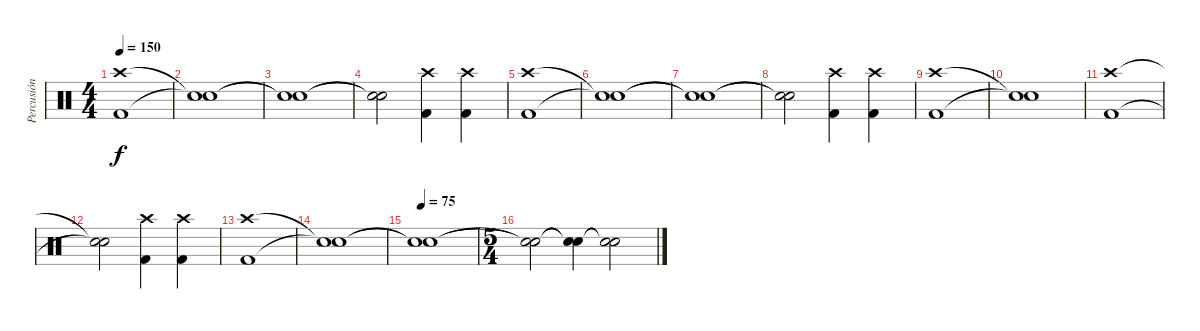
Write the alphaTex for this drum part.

\track ("Percusión" "Percusión") {instrument percussion}
\staff {score}
\articulation defaults
\ts (4 4)
\tempo 150
\clef neutral
\ks c
("Crash high (hit)" "Kick (hit) 2").1{dy f} |
("Snare (hit)"{t} "Snare (hit)"{t}).1 |
("Snare (hit)"{t} "Snare (hit)"{t}).1 |
("Snare (hit)"{t} "Snare (hit)"{t}).2 ("Crash high (hit)" "Kick (hit) 2").4 ("Crash high (hit)" "Kick (hit) 2").4 |
("Crash high (hit)" "Kick (hit) 2").1 |
("Snare (hit)"{t} "Snare (hit)"{t}).1 |
("Snare (hit)"{t} "Snare (hit)"{t}).1 |
("Snare (hit)"{t} "Snare (hit)"{t}).2 ("Crash high (hit)" "Kick (hit) 2").4 ("Crash high (hit)" "Kick (hit) 2").4 |
("Crash high (hit)" "Kick (hit) 2").1 |
("Snare (hit)"{t} "Snare (hit)"{t}).1 |
("Crash high (hit)" "Kick (hit) 2").1 |
("Snare (hit)"{t} "Snare (hit)"{t}).2 ("Crash high (hit)" "Kick (hit) 2").4 ("Crash high (hit)" "Kick (hit) 2").4 |
("Crash high (hit)" "Kick (hit) 2").1 |
("Snare (hit)"{t} "Snare (hit)"{t}).1 |
\tempo 75
("Snare (hit)"{t} "Snare (hit)"{t}).1 |
\ts (5 4)
("Snare (hit)"{t} "Snare (hit)"{t}).2 ("Snare (hit)"{t} "Snare (hit)"{t}).4 ("Snare (hit)"{t} "Snare (hit)"{t}).2
